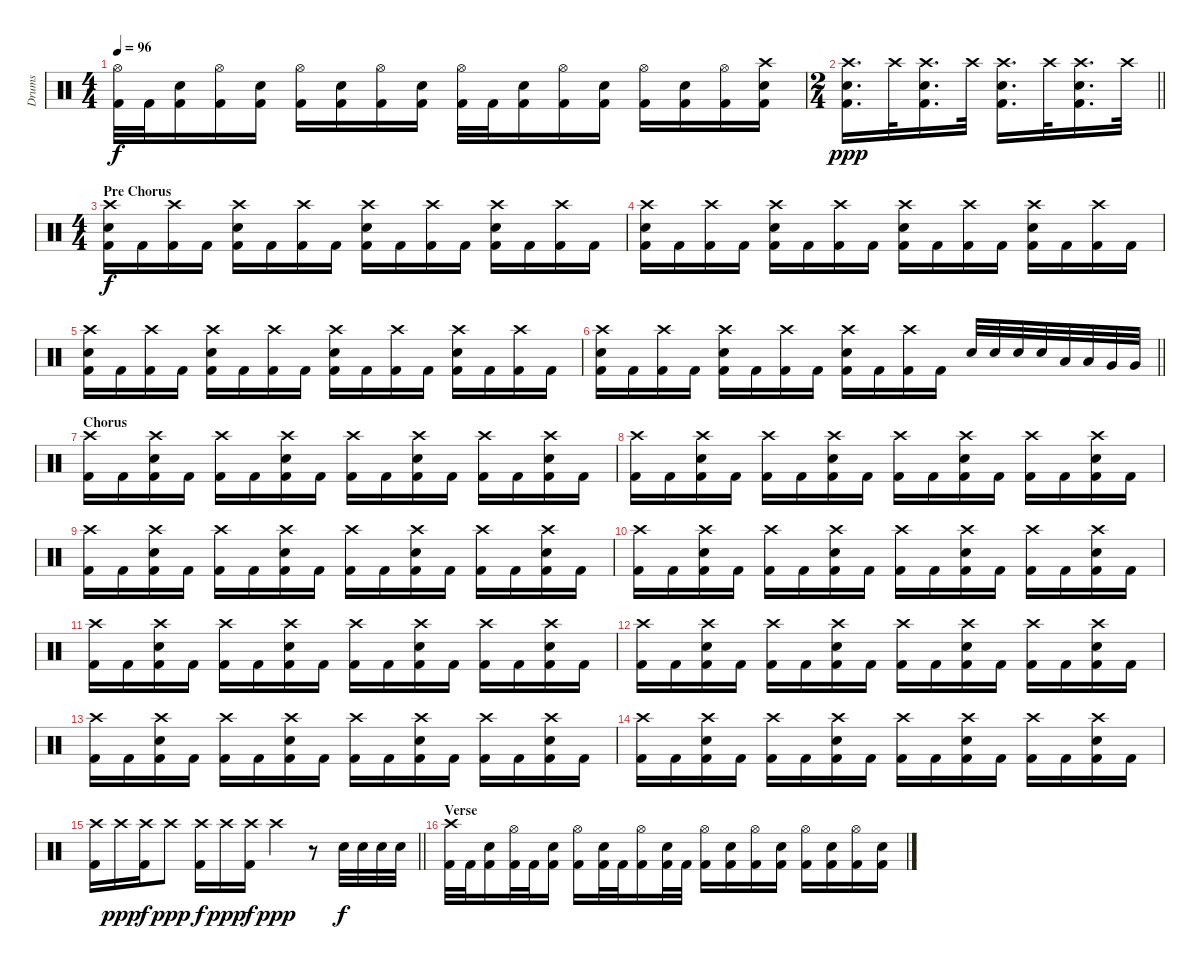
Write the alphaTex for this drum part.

\track ("Drums" "Drums") {instrument percussion}
\staff {score}
\articulation defaults
\ts (4 4)
\tempo 96
\clef neutral
\ks c
("Hi-Hat (open)" "Kick (hit) 2").32{dy f} "Kick (hit) 2".32 ("Snare (hit) 2" "Kick (hit) 2").16 ("Hi-Hat (open)" "Kick (hit) 2").16 ("Snare (hit) 2" "Kick (hit) 2").16 ("Hi-Hat (open)" "Kick (hit) 2").16 ("Snare (hit) 2" "Kick (hit) 2").16 ("Hi-Hat (open)" "Kick (hit) 2").16 ("Snare (hit) 2" "Kick (hit) 2").16 ("Hi-Hat (open)" "Kick (hit) 2").32 "Kick (hit) 2".32 ("Snare (hit) 2" "Kick (hit) 2").16 ("Hi-Hat (open)" "Kick (hit) 2").16 ("Snare (hit) 2" "Kick (hit) 2").16 ("Hi-Hat (open)" "Kick (hit) 2").16 ("Snare (hit) 2" "Kick (hit) 2").16 ("Hi-Hat (open)" "Kick (hit) 2").16 ("Crash high (hit)" "Snare (hit) 2" "Kick (hit) 2").16 |
\ts (2 4)
\barLineRight lightlight
("Crash high (hit)" "Snare (hit) 2" "Kick (hit) 2").16{d dy ppp} "Crash high (hit)".32 ("Crash high (hit)" "Snare (hit) 2" "Kick (hit) 2").16{d} "Crash high (hit)".32 ("Crash high (hit)" "Snare (hit) 2" "Kick (hit) 2").16{d} "Crash high (hit)".32 ("Crash high (hit)" "Snare (hit) 2" "Kick (hit) 2").16{d} "Crash high (hit)".32 |
\ts (4 4)
\section ("" "Pre Chorus")
("Crash high (hit)" "Snare (hit) 2" "Kick (hit) 2").16{dy f} "Kick (hit) 2".16 ("Crash high (hit)" "Kick (hit) 2").16 "Kick (hit) 2".16 ("Crash high (hit)" "Snare (hit) 2" "Kick (hit) 2").16 "Kick (hit) 2".16 ("Crash high (hit)" "Kick (hit) 2").16 "Kick (hit) 2".16 ("Crash high (hit)" "Snare (hit) 2" "Kick (hit) 2").16 "Kick (hit) 2".16 ("Crash high (hit)" "Kick (hit) 2").16 "Kick (hit) 2".16 ("Crash high (hit)" "Snare (hit) 2" "Kick (hit) 2").16 "Kick (hit) 2".16 ("Crash high (hit)" "Kick (hit) 2").16 "Kick (hit) 2".16 |
("Crash high (hit)" "Snare (hit) 2" "Kick (hit) 2").16 "Kick (hit) 2".16 ("Crash high (hit)" "Kick (hit) 2").16 "Kick (hit) 2".16 ("Crash high (hit)" "Snare (hit) 2" "Kick (hit) 2").16 "Kick (hit) 2".16 ("Crash high (hit)" "Kick (hit) 2").16 "Kick (hit) 2".16 ("Crash high (hit)" "Snare (hit) 2" "Kick (hit) 2").16 "Kick (hit) 2".16 ("Crash high (hit)" "Kick (hit) 2").16 "Kick (hit) 2".16 ("Crash high (hit)" "Snare (hit) 2" "Kick (hit) 2").16 "Kick (hit) 2".16 ("Crash high (hit)" "Kick (hit) 2").16 "Kick (hit) 2".16 |
("Crash high (hit)" "Snare (hit) 2" "Kick (hit) 2").16 "Kick (hit) 2".16 ("Crash high (hit)" "Kick (hit) 2").16 "Kick (hit) 2".16 ("Crash high (hit)" "Snare (hit) 2" "Kick (hit) 2").16 "Kick (hit) 2".16 ("Crash high (hit)" "Kick (hit) 2").16 "Kick (hit) 2".16 ("Crash high (hit)" "Snare (hit) 2" "Kick (hit) 2").16 "Kick (hit) 2".16 ("Crash high (hit)" "Kick (hit) 2").16 "Kick (hit) 2".16 ("Crash high (hit)" "Snare (hit) 2" "Kick (hit) 2").16 "Kick (hit) 2".16 ("Crash high (hit)" "Kick (hit) 2").16 "Kick (hit) 2".16 |
\barLineRight lightlight
("Crash high (hit)" "Snare (hit) 2" "Kick (hit) 2").16 "Kick (hit) 2".16 ("Crash high (hit)" "Kick (hit) 2").16 "Kick (hit) 2".16 ("Crash high (hit)" "Snare (hit) 2" "Kick (hit) 2").16 "Kick (hit) 2".16 ("Crash high (hit)" "Kick (hit) 2").16 "Kick (hit) 2".16 ("Crash high (hit)" "Snare (hit) 2" "Kick (hit) 2").16 "Kick (hit) 2".16 ("Crash high (hit)" "Kick (hit) 2").16 "Kick (hit) 2".16 "Snare (hit) 2".32 "Snare (hit) 2".32 "Snare (hit) 2".32 "Snare (hit) 2".32 "Low Tom (hit)".32 "Low Tom (hit)".32 "Very Low Tom (hit)".32 "Very Low Tom (hit)".32 |
\section ("" "Chorus")
("Crash high (hit)" "Kick (hit) 2").16 "Kick (hit) 2".16 ("Crash high (hit)" "Snare (hit) 2" "Kick (hit) 2").16 "Kick (hit) 2".16 ("Crash high (hit)" "Kick (hit) 2").16 "Kick (hit) 2".16 ("Crash high (hit)" "Snare (hit) 2" "Kick (hit) 2").16 "Kick (hit) 2".16 ("Crash high (hit)" "Kick (hit) 2").16 "Kick (hit) 2".16 ("Crash high (hit)" "Snare (hit) 2" "Kick (hit) 2").16 "Kick (hit) 2".16 ("Crash high (hit)" "Kick (hit) 2").16 "Kick (hit) 2".16 ("Crash high (hit)" "Snare (hit) 2" "Kick (hit) 2").16 "Kick (hit) 2".16 |
("Crash high (hit)" "Kick (hit) 2").16 "Kick (hit) 2".16 ("Crash high (hit)" "Snare (hit) 2" "Kick (hit) 2").16 "Kick (hit) 2".16 ("Crash high (hit)" "Kick (hit) 2").16 "Kick (hit) 2".16 ("Crash high (hit)" "Snare (hit) 2" "Kick (hit) 2").16 "Kick (hit) 2".16 ("Crash high (hit)" "Kick (hit) 2").16 "Kick (hit) 2".16 ("Crash high (hit)" "Snare (hit) 2" "Kick (hit) 2").16 "Kick (hit) 2".16 ("Crash high (hit)" "Kick (hit) 2").16 "Kick (hit) 2".16 ("Crash high (hit)" "Snare (hit) 2" "Kick (hit) 2").16 "Kick (hit) 2".16 |
("Crash high (hit)" "Kick (hit) 2").16 "Kick (hit) 2".16 ("Crash high (hit)" "Snare (hit) 2" "Kick (hit) 2").16 "Kick (hit) 2".16 ("Crash high (hit)" "Kick (hit) 2").16 "Kick (hit) 2".16 ("Crash high (hit)" "Snare (hit) 2" "Kick (hit) 2").16 "Kick (hit) 2".16 ("Crash high (hit)" "Kick (hit) 2").16 "Kick (hit) 2".16 ("Crash high (hit)" "Snare (hit) 2" "Kick (hit) 2").16 "Kick (hit) 2".16 ("Crash high (hit)" "Kick (hit) 2").16 "Kick (hit) 2".16 ("Crash high (hit)" "Snare (hit) 2" "Kick (hit) 2").16 "Kick (hit) 2".16 |
("Crash high (hit)" "Kick (hit) 2").16 "Kick (hit) 2".16 ("Crash high (hit)" "Snare (hit) 2" "Kick (hit) 2").16 "Kick (hit) 2".16 ("Crash high (hit)" "Kick (hit) 2").16 "Kick (hit) 2".16 ("Crash high (hit)" "Snare (hit) 2" "Kick (hit) 2").16 "Kick (hit) 2".16 ("Crash high (hit)" "Kick (hit) 2").16 "Kick (hit) 2".16 ("Crash high (hit)" "Snare (hit) 2" "Kick (hit) 2").16 "Kick (hit) 2".16 ("Crash high (hit)" "Kick (hit) 2").16 "Kick (hit) 2".16 ("Crash high (hit)" "Snare (hit) 2" "Kick (hit) 2").16 "Kick (hit) 2".16 |
("Crash high (hit)" "Kick (hit) 2").16 "Kick (hit) 2".16 ("Crash high (hit)" "Snare (hit) 2" "Kick (hit) 2").16 "Kick (hit) 2".16 ("Crash high (hit)" "Kick (hit) 2").16 "Kick (hit) 2".16 ("Crash high (hit)" "Snare (hit) 2" "Kick (hit) 2").16 "Kick (hit) 2".16 ("Crash high (hit)" "Kick (hit) 2").16 "Kick (hit) 2".16 ("Crash high (hit)" "Snare (hit) 2" "Kick (hit) 2").16 "Kick (hit) 2".16 ("Crash high (hit)" "Kick (hit) 2").16 "Kick (hit) 2".16 ("Crash high (hit)" "Snare (hit) 2" "Kick (hit) 2").16 "Kick (hit) 2".16 |
("Crash high (hit)" "Kick (hit) 2").16 "Kick (hit) 2".16 ("Crash high (hit)" "Snare (hit) 2" "Kick (hit) 2").16 "Kick (hit) 2".16 ("Crash high (hit)" "Kick (hit) 2").16 "Kick (hit) 2".16 ("Crash high (hit)" "Snare (hit) 2" "Kick (hit) 2").16 "Kick (hit) 2".16 ("Crash high (hit)" "Kick (hit) 2").16 "Kick (hit) 2".16 ("Crash high (hit)" "Snare (hit) 2" "Kick (hit) 2").16 "Kick (hit) 2".16 ("Crash high (hit)" "Kick (hit) 2").16 "Kick (hit) 2".16 ("Crash high (hit)" "Snare (hit) 2" "Kick (hit) 2").16 "Kick (hit) 2".16 |
("Crash high (hit)" "Kick (hit) 2").16 "Kick (hit) 2".16 ("Crash high (hit)" "Snare (hit) 2" "Kick (hit) 2").16 "Kick (hit) 2".16 ("Crash high (hit)" "Kick (hit) 2").16 "Kick (hit) 2".16 ("Crash high (hit)" "Snare (hit) 2" "Kick (hit) 2").16 "Kick (hit) 2".16 ("Crash high (hit)" "Kick (hit) 2").16 "Kick (hit) 2".16 ("Crash high (hit)" "Snare (hit) 2" "Kick (hit) 2").16 "Kick (hit) 2".16 ("Crash high (hit)" "Kick (hit) 2").16 "Kick (hit) 2".16 ("Crash high (hit)" "Snare (hit) 2" "Kick (hit) 2").16 "Kick (hit) 2".16 |
("Crash high (hit)" "Kick (hit) 2").16 "Kick (hit) 2".16 ("Crash high (hit)" "Snare (hit) 2" "Kick (hit) 2").16 "Kick (hit) 2".16 ("Crash high (hit)" "Kick (hit) 2").16 "Kick (hit) 2".16 ("Crash high (hit)" "Snare (hit) 2" "Kick (hit) 2").16 "Kick (hit) 2".16 ("Crash high (hit)" "Kick (hit) 2").16 "Kick (hit) 2".16 ("Crash high (hit)" "Snare (hit) 2" "Kick (hit) 2").16 "Kick (hit) 2".16 ("Crash high (hit)" "Kick (hit) 2").16 "Kick (hit) 2".16 ("Crash high (hit)" "Snare (hit) 2" "Kick (hit) 2").16 "Kick (hit) 2".16 |
\barLineRight lightlight
("Crash high (hit)" "Kick (hit) 2").16 "Crash high (hit)".16{dy ppp} ("Crash high (hit)" "Kick (hit) 2").16{dy f} "Crash high (hit)".8{dy ppp} ("Crash high (hit)" "Kick (hit) 2").16{dy f} "Crash high (hit)".16{dy ppp} ("Crash high (hit)" "Kick (hit) 2").16{dy f} "Crash high (hit)".4{dy ppp} r.8 "Snare (hit) 2".32{dy f} "Snare (hit) 2".32 "Snare (hit) 2".32 "Snare (hit) 2".32 |
\section ("" "Verse")
("Crash high (hit)" "Kick (hit) 2").32 "Kick (hit) 2".32 ("Snare (hit) 2" "Kick (hit) 2").16 ("Hi-Hat (open)" "Kick (hit) 2").32 "Kick (hit) 2".32 ("Snare (hit) 2" "Kick (hit) 2").16 ("Hi-Hat (open)" "Kick (hit) 2").16 ("Snare (hit) 2" "Kick (hit) 2").32 "Kick (hit) 2".32 ("Hi-Hat (open)" "Kick (hit) 2").16 ("Snare (hit) 2" "Kick (hit) 2").32 "Kick (hit) 2".32 ("Hi-Hat (open)" "Kick (hit) 2").16 ("Snare (hit) 2" "Kick (hit) 2").16 ("Hi-Hat (open)" "Kick (hit) 2").16 ("Snare (hit) 2" "Kick (hit) 2").16 ("Hi-Hat (open)" "Kick (hit) 2").16 ("Snare (hit) 2" "Kick (hit) 2").16 ("Hi-Hat (open)" "Kick (hit) 2").16 ("Snare (hit) 2" "Kick (hit) 2").16
